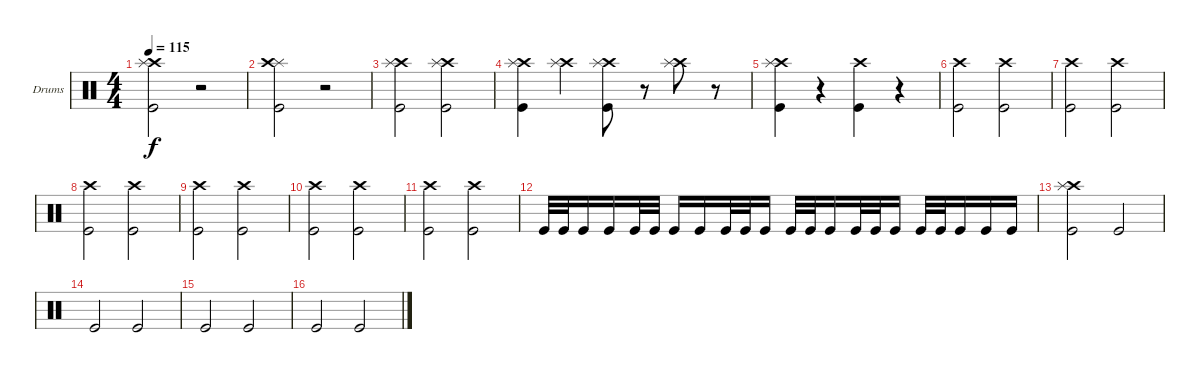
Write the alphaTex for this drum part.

\bracketExtendMode groupsimilarinstruments
\firstSystemTrackNameOrientation horizontal
\otherSystemsTrackNameOrientation horizontal
\track ("Drumkit" "Drums") {instrument percussion}
\staff {score}
\articulation defaults
\ts (4 4)
\tempo 115
\clef neutral
\scale
0.333333
\ks c
("Kick (hit)" "Crash high (hit)" "Splash (hit)").2{dy f} r.2 |
\scale
0.333333 ("Kick (hit)" "Splash (hit)" "Crash high (hit)").2 r.2 |
\scale
0.333333 ("Kick (hit)" "Crash high (hit)" "Splash (hit)").2 ("Kick (hit)" "Crash high (hit)" "Splash (hit)").2 |
("Kick (hit)" "Crash high (hit)" "Splash (hit)").4 ("Crash high (hit)" "Splash (hit)").4 ("Kick (hit)" "Crash high (hit)" "Splash (hit)").8 r.8 ("Crash high (hit)" "Splash (hit)").8 r.8 |
("Kick (hit)" "Crash high (hit)" "Splash (hit)").4 r.4 ("Kick (hit)" "Crash high (hit)").4 r.4 |
("Kick (hit)" "Crash high (hit)").2 ("Kick (hit)" "Crash high (hit)").2 |
("Kick (hit)" "Crash high (hit)").2 ("Kick (hit)" "Crash high (hit)").2 |
("Kick (hit)" "Crash high (hit)").2 ("Kick (hit)" "Crash high (hit)").2 |
("Kick (hit)" "Crash high (hit)").2 ("Kick (hit)" "Crash high (hit)").2 |
("Kick (hit)" "Crash high (hit)").2 ("Kick (hit)" "Crash high (hit)").2 |
("Kick (hit)" "Crash high (hit)").2 ("Kick (hit)" "Crash high (hit)").2 |
"Kick (hit)".32 "Kick (hit)".32 "Kick (hit)".16 "Kick (hit)".16 "Kick (hit)".32 "Kick (hit)".32 "Kick (hit)".16 "Kick (hit)".16 "Kick (hit)".32 "Kick (hit)".32 "Kick (hit)".16 "Kick (hit)".32 "Kick (hit)".32 "Kick (hit)".16 "Kick (hit)".32 "Kick (hit)".32 "Kick (hit)".16 "Kick (hit)".32 "Kick (hit)".32 "Kick (hit)".16 "Kick (hit)".16 "Kick (hit)".16 |
("Kick (hit)" "Crash high (hit)" "Splash (hit)").2 "Kick (hit)".2 |
"Kick (hit)".2 "Kick (hit)".2 |
"Kick (hit)".2 "Kick (hit)".2 |
"Kick (hit)".2 "Kick (hit)".2
